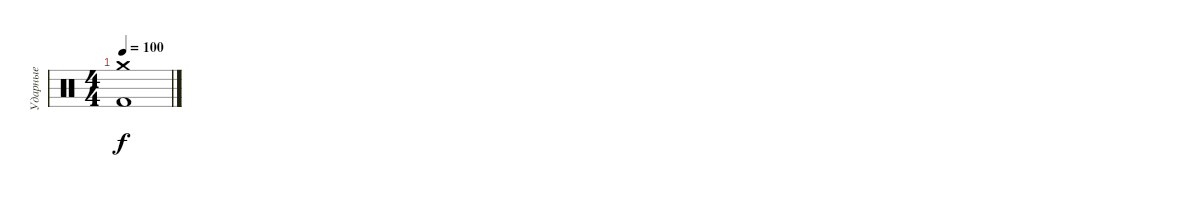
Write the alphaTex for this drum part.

\track ("Ударные" "Ударные") {instrument percussion}
\staff {score}
\articulation defaults
\ts (4 4)
\tempo 100
\clef neutral
\ks c
("Kick (hit) 2" "Crash medium (hit)").1{dy f}
